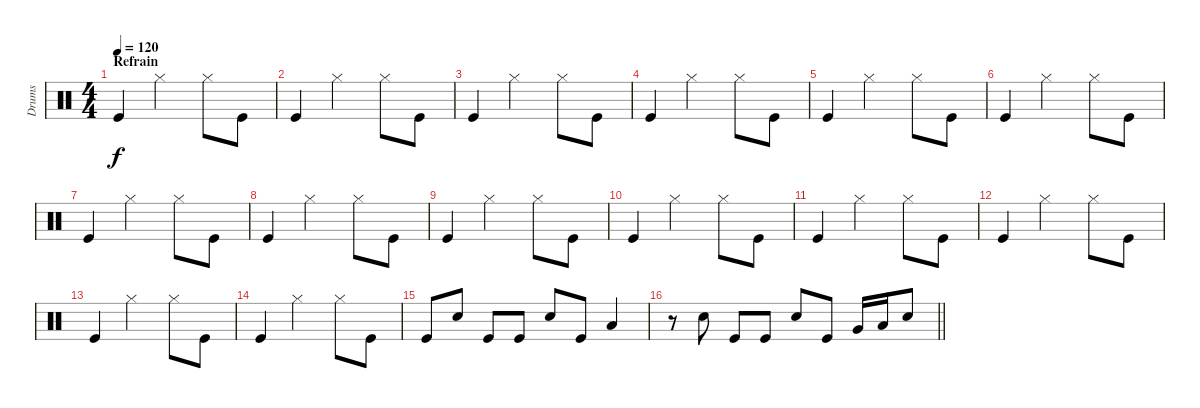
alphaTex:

\track ("Drums" "Drums") {instrument percussion}
\staff {score}
\articulation defaults
\ts (4 4)
\section ("" "Refrain")
\tempo 120
\clef neutral
\ks c "Kick (hit)".4{dy f} "Hi-Hat (closed)".2 "Hi-Hat (closed)".8 "Kick (hit)".8
|
"Kick (hit)".4 "Hi-Hat (closed)".2 "Hi-Hat (closed)".8 "Kick (hit)".8 |
"Kick (hit)".4 "Hi-Hat (closed)".2 "Hi-Hat (closed)".8 "Kick (hit)".8 |
"Kick (hit)".4 "Hi-Hat (closed)".2 "Hi-Hat (closed)".8 "Kick (hit)".8 |
"Kick (hit)".4 "Hi-Hat (closed)".2 "Hi-Hat (closed)".8 "Kick (hit)".8 |
"Kick (hit)".4 "Hi-Hat (closed)".2 "Hi-Hat (closed)".8 "Kick (hit)".8 |
"Kick (hit)".4 "Hi-Hat (closed)".2 "Hi-Hat (closed)".8 "Kick (hit)".8 |
"Kick (hit)".4 "Hi-Hat (closed)".2 "Hi-Hat (closed)".8 "Kick (hit)".8 |
"Kick (hit)".4 "Hi-Hat (closed)".2 "Hi-Hat (closed)".8 "Kick (hit)".8 |
"Kick (hit)".4 "Hi-Hat (closed)".2 "Hi-Hat (closed)".8 "Kick (hit)".8 |
"Kick (hit)".4 "Hi-Hat (closed)".2 "Hi-Hat (closed)".8 "Kick (hit)".8 |
"Kick (hit)".4 "Hi-Hat (closed)".2 "Hi-Hat (closed)".8 "Kick (hit)".8 |
"Kick (hit)".4 "Hi-Hat (closed)".2 "Hi-Hat (closed)".8 "Kick (hit)".8 |
"Kick (hit)".4 "Hi-Hat (closed)".2 "Hi-Hat (closed)".8 "Kick (hit)".8 |
"Kick (hit)".8 "Snare (hit) 2".8 "Kick (hit)".8 "Kick (hit)".8 "Snare (hit) 2".8 "Kick (hit)".8 "Low Floor Tom (hit)".4 |
\barLineRight lightlight
r.8 "Snare (hit) 2".8 "Kick (hit)".8 "Kick (hit)".8 "Snare (hit) 2".8 "Kick (hit)".8 "Very Low Tom (hit)".16 "Low Floor Tom (hit)".16 "Snare (hit) 2".8
